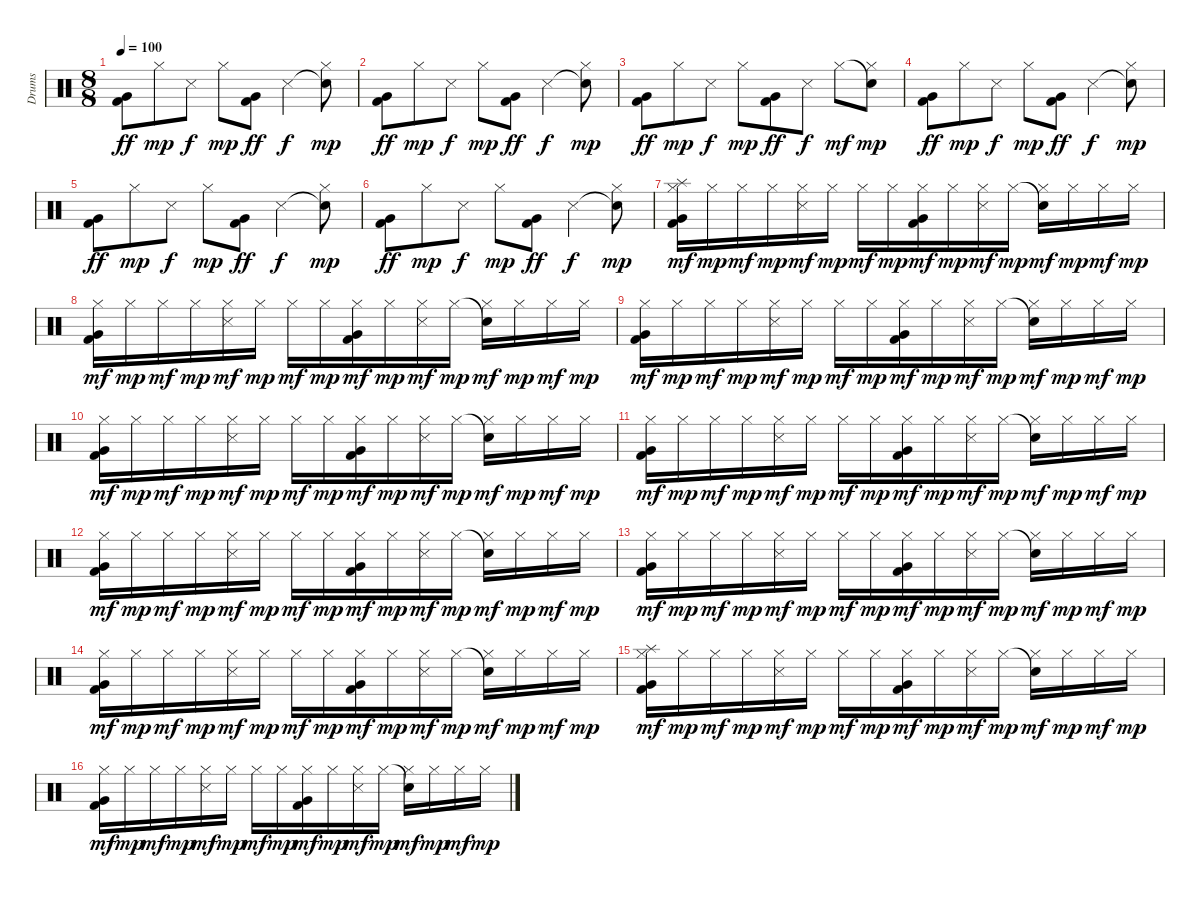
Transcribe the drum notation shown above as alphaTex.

\track ("Drums" "Drums") {instrument percussion}
\staff {score}
\articulation defaults
\ts (8 8)
\tempo 100
\clef neutral
\ks c
("Kick (hit) 2" "Very Low Tom (hit)").8{dy ff} "Hi-Hat (closed)".8{dy mp} "Snare (side stick) 3".8{dy f} "Hi-Hat (closed)".8{dy mp} ("Kick (hit) 2" "Very Low Tom (hit)").8{dy ff} "Snare (side stick) 3".4{dy f} ("Snare (hit)"{t} "Hi-Hat (closed)").8{dy mp} |
("Kick (hit) 2" "Very Low Tom (hit)").8{dy ff} "Hi-Hat (closed)".8{dy mp} "Snare (side stick) 3".8{dy f} "Hi-Hat (closed)".8{dy mp} ("Kick (hit) 2" "Very Low Tom (hit)").8{dy ff} "Snare (side stick) 3".4{dy f} ("Snare (hit)"{t} "Hi-Hat (closed)").8{dy mp} |
("Kick (hit) 2" "Very Low Tom (hit)").8{dy ff} "Hi-Hat (closed)".8{dy mp} "Snare (side stick) 3".8{dy f} "Hi-Hat (closed)".8{dy mp} ("Kick (hit) 2" "Very Low Tom (hit)").8{dy ff} "Snare (side stick) 3".8{dy f} "Hi-Hat (closed)".8{dy mf} ("Snare (hit)"{t} "Hi-Hat (closed)").8{dy mp} |
("Kick (hit) 2" "Very Low Tom (hit)").8{dy ff} "Hi-Hat (closed)".8{dy mp} "Snare (side stick) 3".8{dy f} "Hi-Hat (closed)".8{dy mp} ("Kick (hit) 2" "Very Low Tom (hit)").8{dy ff} "Snare (side stick) 3".4{dy f} ("Snare (hit)"{t} "Hi-Hat (closed)").8{dy mp} |
("Kick (hit) 2" "Very Low Tom (hit)").8{dy ff} "Hi-Hat (closed)".8{dy mp} "Snare (side stick) 3".8{dy f} "Hi-Hat (closed)".8{dy mp} ("Kick (hit) 2" "Very Low Tom (hit)").8{dy ff} "Snare (side stick) 3".4{dy f} ("Snare (hit)"{t} "Hi-Hat (closed)").8{dy mp} |
("Kick (hit) 2" "Very Low Tom (hit)").8{dy ff} "Hi-Hat (closed)".8{dy mp} "Snare (side stick) 3".8{dy f} "Hi-Hat (closed)".8{dy mp} ("Kick (hit) 2" "Very Low Tom (hit)").8{dy ff} "Snare (side stick) 3".4{dy f} ("Snare (hit)"{t} "Hi-Hat (closed)").8{dy mp} |
("Splash (hit)" "Kick (hit) 2" "Very Low Tom (hit)" "Hi-Hat (closed)").16{dy mf} "Hi-Hat (closed)".16{dy mp} "Hi-Hat (closed)".16{dy mf} "Hi-Hat (closed)".16{dy mp} ("Snare (side stick) 3" "Hi-Hat (closed)").16{dy mf} "Hi-Hat (closed)".16{dy mp} "Hi-Hat (closed)".16{dy mf} "Hi-Hat (closed)".16{dy mp} ("Kick (hit) 2" "Very Low Tom (hit)" "Hi-Hat (closed)").16{dy mf} "Hi-Hat (closed)".16{dy mp} ("Snare (side stick) 3" "Hi-Hat (closed)").16{dy mf} "Hi-Hat (closed)".16{dy mp} ("Snare (hit)"{t} "Hi-Hat (closed)").16{dy mf} "Hi-Hat (closed)".16{dy mp} "Hi-Hat (closed)".16{dy mf} "Hi-Hat (closed)".16{dy mp} |
("Kick (hit) 2" "Very Low Tom (hit)" "Hi-Hat (closed)").16{dy mf} "Hi-Hat (closed)".16{dy mp} "Hi-Hat (closed)".16{dy mf} "Hi-Hat (closed)".16{dy mp} ("Snare (side stick) 3" "Hi-Hat (closed)").16{dy mf} "Hi-Hat (closed)".16{dy mp} "Hi-Hat (closed)".16{dy mf} "Hi-Hat (closed)".16{dy mp} ("Kick (hit) 2" "Very Low Tom (hit)" "Hi-Hat (closed)").16{dy mf} "Hi-Hat (closed)".16{dy mp} ("Snare (side stick) 3" "Hi-Hat (closed)").16{dy mf} "Hi-Hat (closed)".16{dy mp} ("Snare (hit)"{t} "Hi-Hat (closed)").16{dy mf} "Hi-Hat (closed)".16{dy mp} "Hi-Hat (closed)".16{dy mf} "Hi-Hat (closed)".16{dy mp} |
("Kick (hit) 2" "Very Low Tom (hit)" "Hi-Hat (closed)").16{dy mf} "Hi-Hat (closed)".16{dy mp} "Hi-Hat (closed)".16{dy mf} "Hi-Hat (closed)".16{dy mp} ("Snare (side stick) 3" "Hi-Hat (closed)").16{dy mf} "Hi-Hat (closed)".16{dy mp} "Hi-Hat (closed)".16{dy mf} "Hi-Hat (closed)".16{dy mp} ("Kick (hit) 2" "Very Low Tom (hit)" "Hi-Hat (closed)").16{dy mf} "Hi-Hat (closed)".16{dy mp} ("Snare (side stick) 3" "Hi-Hat (closed)").16{dy mf} "Hi-Hat (closed)".16{dy mp} ("Snare (hit)"{t} "Hi-Hat (closed)").16{dy mf} "Hi-Hat (closed)".16{dy mp} "Hi-Hat (closed)".16{dy mf} "Hi-Hat (closed)".16{dy mp} |
("Kick (hit) 2" "Very Low Tom (hit)" "Hi-Hat (closed)").16{dy mf} "Hi-Hat (closed)".16{dy mp} "Hi-Hat (closed)".16{dy mf} "Hi-Hat (closed)".16{dy mp} ("Snare (side stick) 3" "Hi-Hat (closed)").16{dy mf} "Hi-Hat (closed)".16{dy mp} "Hi-Hat (closed)".16{dy mf} "Hi-Hat (closed)".16{dy mp} ("Kick (hit) 2" "Very Low Tom (hit)" "Hi-Hat (closed)").16{dy mf} "Hi-Hat (closed)".16{dy mp} ("Snare (side stick) 3" "Hi-Hat (closed)").16{dy mf} "Hi-Hat (closed)".16{dy mp} ("Snare (hit)"{t} "Hi-Hat (closed)").16{dy mf} "Hi-Hat (closed)".16{dy mp} "Hi-Hat (closed)".16{dy mf} "Hi-Hat (closed)".16{dy mp} |
("Kick (hit) 2" "Very Low Tom (hit)" "Hi-Hat (closed)").16{dy mf} "Hi-Hat (closed)".16{dy mp} "Hi-Hat (closed)".16{dy mf} "Hi-Hat (closed)".16{dy mp} ("Snare (side stick) 3" "Hi-Hat (closed)").16{dy mf} "Hi-Hat (closed)".16{dy mp} "Hi-Hat (closed)".16{dy mf} "Hi-Hat (closed)".16{dy mp} ("Kick (hit) 2" "Very Low Tom (hit)" "Hi-Hat (closed)").16{dy mf} "Hi-Hat (closed)".16{dy mp} ("Snare (side stick) 3" "Hi-Hat (closed)").16{dy mf} "Hi-Hat (closed)".16{dy mp} ("Snare (hit)"{t} "Hi-Hat (closed)").16{dy mf} "Hi-Hat (closed)".16{dy mp} "Hi-Hat (closed)".16{dy mf} "Hi-Hat (closed)".16{dy mp} |
("Kick (hit) 2" "Very Low Tom (hit)" "Hi-Hat (closed)").16{dy mf} "Hi-Hat (closed)".16{dy mp} "Hi-Hat (closed)".16{dy mf} "Hi-Hat (closed)".16{dy mp} ("Snare (side stick) 3" "Hi-Hat (closed)").16{dy mf} "Hi-Hat (closed)".16{dy mp} "Hi-Hat (closed)".16{dy mf} "Hi-Hat (closed)".16{dy mp} ("Kick (hit) 2" "Very Low Tom (hit)" "Hi-Hat (closed)").16{dy mf} "Hi-Hat (closed)".16{dy mp} ("Snare (side stick) 3" "Hi-Hat (closed)").16{dy mf} "Hi-Hat (closed)".16{dy mp} ("Snare (hit)"{t} "Hi-Hat (closed)").16{dy mf} "Hi-Hat (closed)".16{dy mp} "Hi-Hat (closed)".16{dy mf} "Hi-Hat (closed)".16{dy mp} |
("Kick (hit) 2" "Very Low Tom (hit)" "Hi-Hat (closed)").16{dy mf} "Hi-Hat (closed)".16{dy mp} "Hi-Hat (closed)".16{dy mf} "Hi-Hat (closed)".16{dy mp} ("Snare (side stick) 3" "Hi-Hat (closed)").16{dy mf} "Hi-Hat (closed)".16{dy mp} "Hi-Hat (closed)".16{dy mf} "Hi-Hat (closed)".16{dy mp} ("Kick (hit) 2" "Very Low Tom (hit)" "Hi-Hat (closed)").16{dy mf} "Hi-Hat (closed)".16{dy mp} ("Snare (side stick) 3" "Hi-Hat (closed)").16{dy mf} "Hi-Hat (closed)".16{dy mp} ("Snare (hit)"{t} "Hi-Hat (closed)").16{dy mf} "Hi-Hat (closed)".16{dy mp} "Hi-Hat (closed)".16{dy mf} "Hi-Hat (closed)".16{dy mp} |
("Kick (hit) 2" "Very Low Tom (hit)" "Hi-Hat (closed)").16{dy mf} "Hi-Hat (closed)".16{dy mp} "Hi-Hat (closed)".16{dy mf} "Hi-Hat (closed)".16{dy mp} ("Snare (side stick) 3" "Hi-Hat (closed)").16{dy mf} "Hi-Hat (closed)".16{dy mp} "Hi-Hat (closed)".16{dy mf} "Hi-Hat (closed)".16{dy mp} ("Kick (hit) 2" "Very Low Tom (hit)" "Hi-Hat (closed)").16{dy mf} "Hi-Hat (closed)".16{dy mp} ("Snare (side stick) 3" "Hi-Hat (closed)").16{dy mf} "Hi-Hat (closed)".16{dy mp} ("Snare (hit)"{t} "Hi-Hat (closed)").16{dy mf} "Hi-Hat (closed)".16{dy mp} "Hi-Hat (closed)".16{dy mf} "Hi-Hat (closed)".16{dy mp} |
("Splash (hit)" "Kick (hit) 2" "Very Low Tom (hit)" "Hi-Hat (closed)").16{dy mf} "Hi-Hat (closed)".16{dy mp} "Hi-Hat (closed)".16{dy mf} "Hi-Hat (closed)".16{dy mp} ("Snare (side stick) 3" "Hi-Hat (closed)").16{dy mf} "Hi-Hat (closed)".16{dy mp} "Hi-Hat (closed)".16{dy mf} "Hi-Hat (closed)".16{dy mp} ("Kick (hit) 2" "Very Low Tom (hit)" "Hi-Hat (closed)").16{dy mf} "Hi-Hat (closed)".16{dy mp} ("Snare (side stick) 3" "Hi-Hat (closed)").16{dy mf} "Hi-Hat (closed)".16{dy mp} ("Snare (hit)"{t} "Hi-Hat (closed)").16{dy mf} "Hi-Hat (closed)".16{dy mp} "Hi-Hat (closed)".16{dy mf} "Hi-Hat (closed)".16{dy mp} |
("Kick (hit) 2" "Very Low Tom (hit)" "Hi-Hat (closed)").16{dy mf} "Hi-Hat (closed)".16{dy mp} "Hi-Hat (closed)".16{dy mf} "Hi-Hat (closed)".16{dy mp} ("Snare (side stick) 3" "Hi-Hat (closed)").16{dy mf} "Hi-Hat (closed)".16{dy mp} "Hi-Hat (closed)".16{dy mf} "Hi-Hat (closed)".16{dy mp} ("Kick (hit) 2" "Very Low Tom (hit)" "Hi-Hat (closed)").16{dy mf} "Hi-Hat (closed)".16{dy mp} ("Snare (side stick) 3" "Hi-Hat (closed)").16{dy mf} "Hi-Hat (closed)".16{dy mp} ("Snare (hit)"{t} "Hi-Hat (closed)").16{dy mf} "Hi-Hat (closed)".16{dy mp} "Hi-Hat (closed)".16{dy mf} "Hi-Hat (closed)".16{dy mp}
